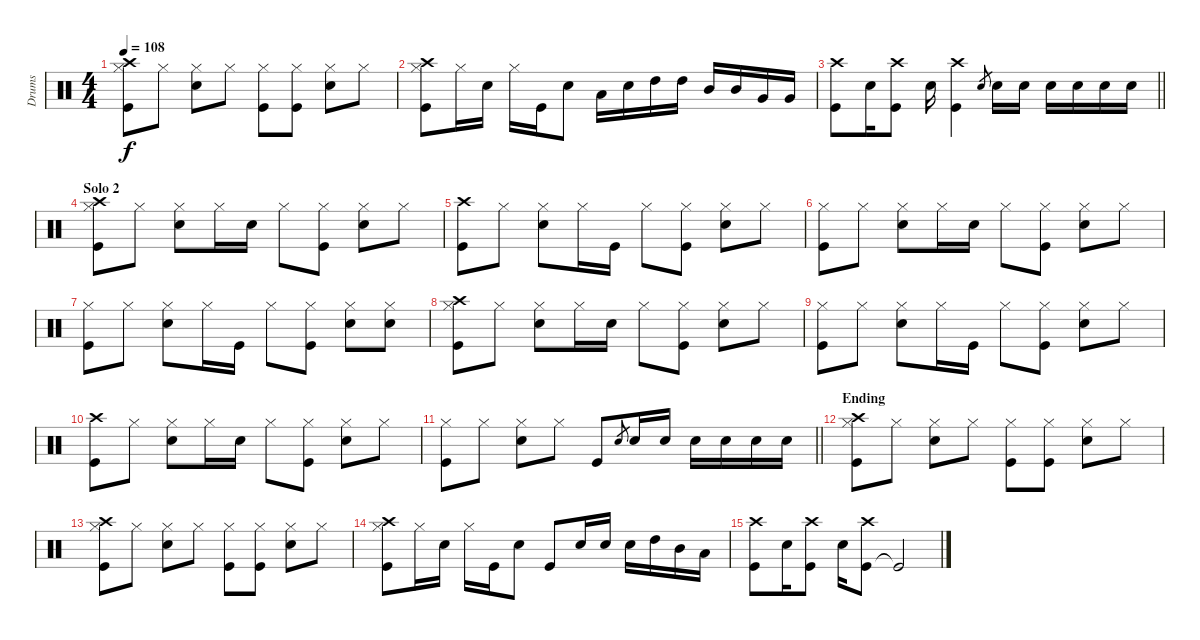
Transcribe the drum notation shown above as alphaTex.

\track ("Drums" "Drums") {instrument percussion}
\staff {score}
\articulation defaults
\ts (4 4)
\tempo 108
\clef neutral
\ks c
("Kick (hit)" "Hi-Hat (closed)" "Crash high (hit)").8{dy f} "Hi-Hat (closed)".8 ("Snare (hit) 2" "Hi-Hat (closed)").8 "Hi-Hat (closed)".8 ("Kick (hit)" "Hi-Hat (closed)").8 ("Hi-Hat (closed)" "Kick (hit)").8 ("Snare (hit) 2" "Hi-Hat (closed)").8 "Hi-Hat (closed)".8 |
("Kick (hit)" "Hi-Hat (closed)" "Crash high (hit)").8 "Hi-Hat (closed)".16 "Snare (hit) 2".16 "Hi-Hat (closed)".16 "Kick (hit)".16 "Snare (hit) 2".8 "Low Tom (hit)".16 "Snare (hit) 2".16 "High Tom (hit)".16 "High Tom (hit)".16 "Mid Tom (hit)".16 "Mid Tom (hit)".16 "Very Low Tom (hit)".16 "Very Low Tom (hit)".16 |
\barLineRight lightlight
("Kick (hit)" "Crash high (hit)").8 "Snare (hit) 2".16 ("Kick (hit)" "Crash high (hit)").8 "Snare (hit) 2".16 ("Kick (hit)" "Crash high (hit)").4 "Snare (hit) 2".8{gr} "Snare (hit) 2".16 "Snare (hit) 2".16 "Snare (hit) 2".16 "Snare (hit) 2".16 "Snare (hit) 2".16 "Snare (hit) 2".16 |
\section ("" "Solo 2")
("Hi-Hat (closed)" "Kick (hit)" "Crash high (hit)").8 "Hi-Hat (closed)".8 ("Snare (hit) 2" "Hi-Hat (closed)").8 "Hi-Hat (closed)".16 "Snare (hit) 2".16 "Hi-Hat (closed)".8 ("Kick (hit)" "Hi-Hat (closed)").8 ("Hi-Hat (closed)" "Snare (hit) 2").8 "Hi-Hat (closed)".8 |
("Crash high (hit)" "Kick (hit)").8 "Hi-Hat (closed)".8 ("Snare (hit) 2" "Hi-Hat (closed)").8 "Hi-Hat (closed)".16 "Kick (hit)".16 "Hi-Hat (closed)".8 ("Kick (hit)" "Hi-Hat (closed)").8 ("Hi-Hat (closed)" "Snare (hit) 2").8 "Hi-Hat (closed)".8 |
("Hi-Hat (closed)" "Kick (hit)").8 "Hi-Hat (closed)".8 ("Snare (hit) 2" "Hi-Hat (closed)").8 "Hi-Hat (closed)".16 "Snare (hit) 2".16 "Hi-Hat (closed)".8 ("Kick (hit)" "Hi-Hat (closed)").8 ("Hi-Hat (closed)" "Snare (hit) 2").8 "Hi-Hat (closed)".8 |
("Hi-Hat (closed)" "Kick (hit)").8 "Hi-Hat (closed)".8 ("Snare (hit) 2" "Hi-Hat (closed)").8 "Hi-Hat (closed)".16 "Kick (hit)".16 "Hi-Hat (closed)".8 ("Kick (hit)" "Hi-Hat (closed)").8 ("Hi-Hat (closed)" "Snare (hit) 2").8 ("Hi-Hat (closed)" "Snare (hit) 2").8 |
("Hi-Hat (closed)" "Kick (hit)" "Crash high (hit)").8 "Hi-Hat (closed)".8 ("Snare (hit) 2" "Hi-Hat (closed)").8 "Hi-Hat (closed)".16 "Snare (hit) 2".16 "Hi-Hat (closed)".8 ("Kick (hit)" "Hi-Hat (closed)").8 ("Hi-Hat (closed)" "Snare (hit) 2").8 "Hi-Hat (closed)".8 |
("Hi-Hat (closed)" "Kick (hit)").8 "Hi-Hat (closed)".8 ("Snare (hit) 2" "Hi-Hat (closed)").8 "Hi-Hat (closed)".16 "Kick (hit)".16 "Hi-Hat (closed)".8 ("Kick (hit)" "Hi-Hat (closed)").8 ("Hi-Hat (closed)" "Snare (hit) 2").8 "Hi-Hat (closed)".8 |
("Crash high (hit)" "Kick (hit)").8 "Hi-Hat (closed)".8 ("Snare (hit) 2" "Hi-Hat (closed)").8 "Hi-Hat (closed)".16 "Snare (hit) 2".16 "Hi-Hat (closed)".8 ("Kick (hit)" "Hi-Hat (closed)").8 ("Hi-Hat (closed)" "Snare (hit) 2").8 "Hi-Hat (closed)".8 |
\barLineRight lightlight
("Hi-Hat (closed)" "Kick (hit)").8 "Hi-Hat (closed)".8 ("Snare (hit) 2" "Hi-Hat (closed)").8 "Hi-Hat (closed)".8 "Kick (hit)".8 "Snare (hit) 2".8{gr} "Snare (hit) 2".16 "Snare (hit) 2".16 "Snare (hit) 2".16 "Snare (hit) 2".16 "Snare (hit) 2".16 "Snare (hit) 2".16 |
\section ("" "Ending")
("Kick (hit)" "Hi-Hat (closed)" "Crash high (hit)").8 "Hi-Hat (closed)".8 ("Snare (hit) 2" "Hi-Hat (closed)").8 "Hi-Hat (closed)".8 ("Kick (hit)" "Hi-Hat (closed)").8 ("Hi-Hat (closed)" "Kick (hit)").8 ("Snare (hit) 2" "Hi-Hat (closed)").8 "Hi-Hat (closed)".8 |
("Kick (hit)" "Hi-Hat (closed)" "Crash high (hit)").8 "Hi-Hat (closed)".8 ("Snare (hit) 2" "Hi-Hat (closed)").8 "Hi-Hat (closed)".8 ("Kick (hit)" "Hi-Hat (closed)").8 ("Hi-Hat (closed)" "Kick (hit)").8 ("Snare (hit) 2" "Hi-Hat (closed)").8 "Hi-Hat (closed)".8 |
("Kick (hit)" "Hi-Hat (closed)" "Crash high (hit)").8 "Hi-Hat (closed)".16 "Snare (hit) 2".16 "Hi-Hat (closed)".16 "Kick (hit)".16 "Snare (hit) 2".8 "Kick (hit)".8 "Snare (hit) 2".16 "Snare (hit) 2".16 "Snare (hit) 2".16 "High Tom (hit)".16 "Mid Tom (hit)".16 "Low Tom (hit)".16 |
("Kick (hit)" "Crash high (hit)").8 "Snare (hit) 2".16 ("Kick (hit)" "Crash high (hit)").8 "Snare (hit) 2".16 ("Kick (hit)" "Crash high (hit)").8 "Kick (hit)"{t}.2
